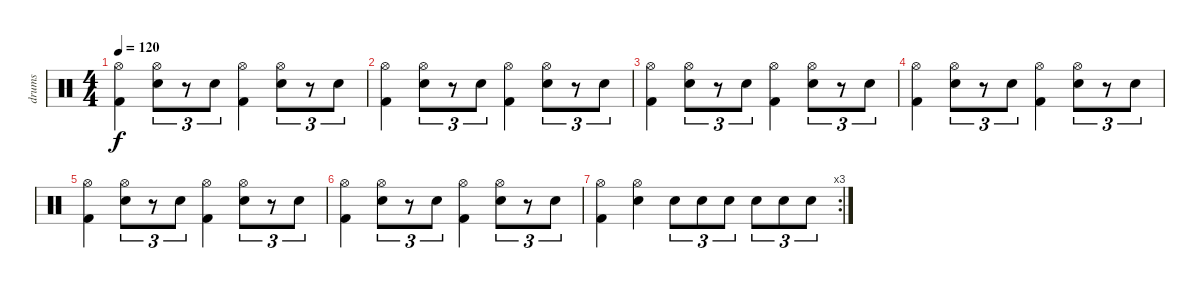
\track ("drums" "drums") {instrument percussion}
\staff {score}
\articulation defaults
\ts (4 4)
\tempo 120
\clef neutral
\ks c
("Hi-Hat (open)" "Kick (hit) 2").4{dy f} ("Hi-Hat (open)" "Snare (hit) 2").8{tu (3 2)} r.8{tu (3 2)} "Snare (hit) 2".8{tu (3 2)} ("Hi-Hat (open)" "Kick (hit) 2").4 ("Hi-Hat (open)" "Snare (hit) 2").8{tu (3 2)} r.8{tu (3 2)} "Snare (hit) 2".8{tu (3 2)} |
("Hi-Hat (open)" "Kick (hit) 2").4 ("Hi-Hat (open)" "Snare (hit) 2").8{tu (3 2)} r.8{tu (3 2)} "Snare (hit) 2".8{tu (3 2)} ("Hi-Hat (open)" "Kick (hit) 2").4 ("Hi-Hat (open)" "Snare (hit) 2").8{tu (3 2)} r.8{tu (3 2)} "Snare (hit) 2".8{tu (3 2)} |
("Hi-Hat (open)" "Kick (hit) 2").4 ("Hi-Hat (open)" "Snare (hit) 2").8{tu (3 2)} r.8{tu (3 2)} "Snare (hit) 2".8{tu (3 2)} ("Hi-Hat (open)" "Kick (hit) 2").4 ("Hi-Hat (open)" "Snare (hit) 2").8{tu (3 2)} r.8{tu (3 2)} "Snare (hit) 2".8{tu (3 2)} |
("Hi-Hat (open)" "Kick (hit) 2").4 ("Hi-Hat (open)" "Snare (hit) 2").8{tu (3 2)} r.8{tu (3 2)} "Snare (hit) 2".8{tu (3 2)} ("Hi-Hat (open)" "Kick (hit) 2").4 ("Hi-Hat (open)" "Snare (hit) 2").8{tu (3 2)} r.8{tu (3 2)} "Snare (hit) 2".8{tu (3 2)} |
("Hi-Hat (open)" "Kick (hit) 2").4 ("Hi-Hat (open)" "Snare (hit) 2").8{tu (3 2)} r.8{tu (3 2)} "Snare (hit) 2".8{tu (3 2)} ("Hi-Hat (open)" "Kick (hit) 2").4 ("Hi-Hat (open)" "Snare (hit) 2").8{tu (3 2)} r.8{tu (3 2)} "Snare (hit) 2".8{tu (3 2)} |
("Hi-Hat (open)" "Kick (hit) 2").4 ("Hi-Hat (open)" "Snare (hit) 2").8{tu (3 2)} r.8{tu (3 2)} "Snare (hit) 2".8{tu (3 2)} ("Hi-Hat (open)" "Kick (hit) 2").4 ("Hi-Hat (open)" "Snare (hit) 2").8{tu (3 2)} r.8{tu (3 2)} "Snare (hit) 2".8{tu (3 2)} |
\rc 3
("Hi-Hat (open)" "Kick (hit) 2").4 ("Hi-Hat (open)" "Snare (hit) 2").4 "Snare (hit) 2".8{tu (3 2)} "Snare (hit) 2".8{tu (3 2)} "Snare (hit) 2".8{tu (3 2)} "Snare (hit) 2".8{tu (3 2)} "Snare (hit) 2".8{tu (3 2)} "Snare (hit) 2".8{tu (3 2)}
